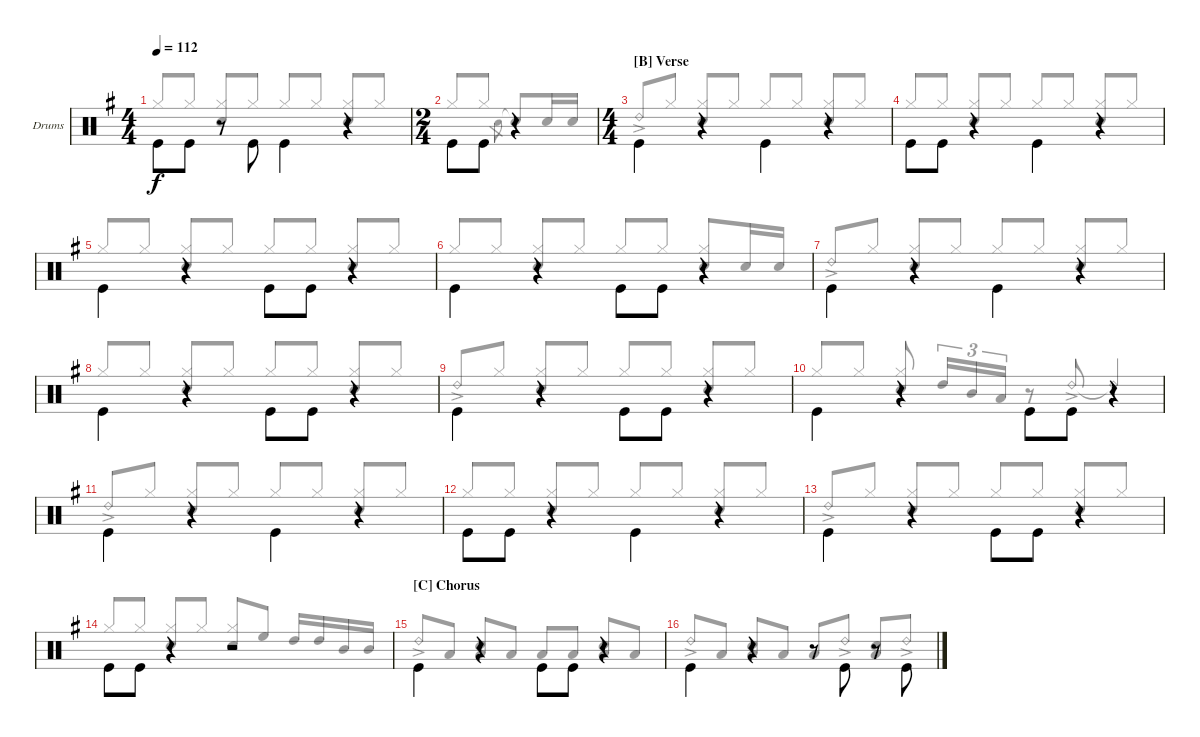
\defaultSystemsLayout 4
\bracketExtendMode groupsimilarinstruments
\firstSystemTrackNameOrientation horizontal
\otherSystemsTrackNameOrientation horizontal
\track ("Drumkit" "Drums") {instrument percussion}
\staff {score}
\articulation defaults
\voice
\ts (4 4)
\tempo 112
\clef neutral
\scale
1.04288
\ks g "Kick (hit)".8{dy f beam invert} "Kick (hit)".8
r.8 "Kick (hit)".8{beam invert} "Kick (hit)".4{beam invert} r.4 |
\ts (2 4)
\scale
0.957125 "Kick (hit)".8{beam invert} "Kick (hit)".8 r.4 |
\ts (4 4)
\section ("B" "Verse")
\scale
1.07314 "Kick (hit)".4{beam invert} r.4{beam invert} "Kick (hit)".4{beam invert} r.4{beam invert} |
\scale
0.92686 "Kick (hit)".8{beam invert} "Kick (hit)".8 r.4{beam invert} "Kick (hit)".4{beam invert} r.4{beam invert} |
\scale
1.04288 "Kick (hit)".4{beam invert} r.4{beam invert} "Kick (hit)".8{beam invert} "Kick (hit)".8 r.4{beam invert} |
\scale
0.957125 "Kick (hit)".4{beam invert} r.4{beam invert} "Kick (hit)".8{beam invert} "Kick (hit)".8 r.4{beam invert} |
\scale
1.04288 "Kick (hit)".4{beam invert} r.4{beam invert} "Kick (hit)".4{beam invert} r.4{beam invert} |
\scale
0.957125 "Kick (hit)".4{beam invert} r.4{beam invert} "Kick (hit)".8{beam invert} "Kick (hit)".8 r.4{beam invert} |
\scale
1.04288 "Kick (hit)".4{beam invert} r.4{beam invert} "Kick (hit)".8{beam invert} "Kick (hit)".8 r.4{beam invert} |
\scale
0.957125 "Kick (hit)".4{beam invert} r.4{beam invert} "Kick (hit)".8{beam invert} "Kick (hit)".8 r.4{beam invert} |
\scale
1.04288 "Kick (hit)".4{beam invert} r.4{beam invert} "Kick (hit)".4{beam invert} r.4{beam invert} |
\scale
0.957125 "Kick (hit)".8{beam invert} "Kick (hit)".8 r.4{beam invert} "Kick (hit)".4{beam invert} r.4{beam invert} |
\scale
1.04288 "Kick (hit)".4{beam invert} r.4{beam invert} "Kick (hit)".8{beam invert} "Kick (hit)".8 r.4{beam invert} |
\scale
0.957125 "Kick (hit)".8{beam invert} "Kick (hit)".8 r.4{beam invert} r.2 |
\section ("C" "Chorus")
\scale
1.04288 "Kick (hit)".4{beam invert} r.4{beam invert} "Kick (hit)".8{beam invert} "Kick (hit)".8 r.4{beam invert} |
\scale
0.957125 "Kick (hit)".4{beam invert} r.4{beam invert} r.8 "Kick (hit)".8{beam invert} r.8 "Kick (hit)".8{beam invert}
\voice
\clef neutral
\ottava regular
\simile none
\scale
1.04288
\ks g "Hi-Hat (closed)".8{dy f beam invert} "Hi-Hat (closed)".8
("Hi-Hat (closed)" "Snare (hit) 2").8{beam invert} "Hi-Hat (closed)".8 "Hi-Hat (closed)".8{beam invert} "Hi-Hat (closed)".8 ("Hi-Hat (closed)" "Snare (hit) 2").8{beam invert} "Hi-Hat (closed)".8 |
\scale
0.957125 "Hi-Hat (closed)".8{beam invert} "Hi-Hat (closed)".8 "Snare (hit) 2".8{gr} "Snare (hit) 2"{t}.8{beam invert} "Snare (hit) 2".16 "Snare (hit) 2".16 |
\scale
1.07314 "Ride (bell) 2"{ac}.8{beam invert} "Hi-Hat (closed)".8 ("Hi-Hat (closed)" "Snare (hit) 2").8{beam invert} "Hi-Hat (closed)".8 "Hi-Hat (closed)".8{beam invert} "Hi-Hat (closed)".8 ("Hi-Hat (closed)" "Snare (hit) 2").8{beam invert} "Hi-Hat (closed)".8 |
\scale
0.92686 "Hi-Hat (closed)".8{beam invert} "Hi-Hat (closed)".8 ("Hi-Hat (closed)" "Snare (hit) 2").8{beam invert} "Hi-Hat (closed)".8 "Hi-Hat (closed)".8{beam invert} "Hi-Hat (closed)".8 ("Hi-Hat (closed)" "Snare (hit) 2").8{beam invert} "Hi-Hat (closed)".8 |
\scale
1.04288 "Hi-Hat (closed)".8{beam invert} "Hi-Hat (closed)".8 ("Hi-Hat (closed)" "Snare (hit) 2").8{beam invert} "Hi-Hat (closed)".8 "Hi-Hat (closed)".8{beam invert} "Hi-Hat (closed)".8 ("Hi-Hat (closed)" "Snare (hit) 2").8{beam invert} "Hi-Hat (closed)".8 |
\scale
0.957125 "Hi-Hat (closed)".8{beam invert} "Hi-Hat (closed)".8 ("Hi-Hat (closed)" "Snare (hit) 2").8{beam invert} "Hi-Hat (closed)".8 "Hi-Hat (closed)".8{beam invert} "Hi-Hat (closed)".8 ("Hi-Hat (closed)" "Snare (hit) 2").8{beam invert} "Snare (hit) 2".16 "Snare (hit) 2".16 |
\scale
1.04288 "Ride (bell) 2"{ac}.8{beam invert} "Hi-Hat (closed)".8 ("Hi-Hat (closed)" "Snare (hit) 2").8{beam invert} "Hi-Hat (closed)".8 "Hi-Hat (closed)".8{beam invert} "Hi-Hat (closed)".8 ("Hi-Hat (closed)" "Snare (hit) 2").8{beam invert} "Hi-Hat (closed)".8 |
\scale
0.957125 "Hi-Hat (closed)".8{beam invert} "Hi-Hat (closed)".8 ("Hi-Hat (closed)" "Snare (hit) 2").8{beam invert} "Hi-Hat (closed)".8 "Hi-Hat (closed)".8{beam invert} "Hi-Hat (closed)".8 ("Hi-Hat (closed)" "Snare (hit) 2").8{beam invert} "Hi-Hat (closed)".8 |
\scale
1.04288 "Ride (bell) 2"{ac}.8{beam invert} "Hi-Hat (closed)".8 ("Hi-Hat (closed)" "Snare (hit) 2").8{beam invert} "Hi-Hat (closed)".8 "Hi-Hat (closed)".8{beam invert} "Hi-Hat (closed)".8 ("Hi-Hat (closed)" "Snare (hit) 2").8{beam invert} "Hi-Hat (closed)".8 |
\scale
0.957125 "Hi-Hat (closed)".8{beam invert} "Hi-Hat (closed)".8 ("Hi-Hat (closed)" "Snare (hit) 2").8{beam invert} "High Tom (hit)".16{tu (3 2) beam invert} "Mid Tom (hit)".16{tu (3 2)} "Low Tom (hit)".16{tu (3 2)} r.8 "Ride (bell) 2"{ac}.8{beam invert} "Ride (bell) 2"{t}.4{beam invert} |
\scale
1.04288 "Ride (bell) 2"{ac}.8{beam invert} "Hi-Hat (closed)".8 ("Hi-Hat (closed)" "Snare (hit) 2").8{beam invert} "Hi-Hat (closed)".8 "Hi-Hat (closed)".8{beam invert} "Hi-Hat (closed)".8 ("Hi-Hat (closed)" "Snare (hit) 2").8{beam invert} "Hi-Hat (closed)".8 |
\scale
0.957125 "Hi-Hat (closed)".8{beam invert} "Hi-Hat (closed)".8 ("Hi-Hat (closed)" "Snare (hit) 2").8{beam invert} "Hi-Hat (closed)".8 "Hi-Hat (closed)".8{beam invert} "Hi-Hat (closed)".8 ("Hi-Hat (closed)" "Snare (hit) 2").8{beam invert} "Hi-Hat (closed)".8 |
\scale
1.04288 "Ride (bell) 2"{ac}.8{beam invert} "Hi-Hat (closed)".8 ("Hi-Hat (closed)" "Snare (hit) 2").8{beam invert} "Hi-Hat (closed)".8 "Hi-Hat (closed)".8{beam invert} "Hi-Hat (closed)".8 ("Hi-Hat (closed)" "Snare (hit) 2").8{beam invert} "Hi-Hat (closed)".8 |
\scale
0.957125 "Hi-Hat (closed)".8{beam invert} "Hi-Hat (closed)".8 ("Hi-Hat (closed)" "Snare (hit) 2").8{beam invert} "Hi-Hat (closed)".8 ("Hi-Hat (closed)" "Snare (hit) 2").8{beam invert} "High Floor Tom (hit)".8 "High Tom (hit)".16{beam invert} "High Tom (hit)".16 "Mid Tom (hit)".16 "Mid Tom (hit)".16 |
\scale
1.04288 "Ride (bell) 2"{ac}.8{beam invert} "Low Tom (hit)".8 ("Low Tom (hit)" "Snare (hit) 2").8{beam invert} "Low Tom (hit)".8 "Low Tom (hit)".8{beam invert} "Low Tom (hit)".8 ("Low Tom (hit)" "Snare (hit) 2").8{beam invert} "Low Tom (hit)".8 |
\scale
0.957125 "Ride (bell) 2"{ac}.8{beam invert} "Low Tom (hit)".8 ("Low Tom (hit)" "Snare (hit) 2").8{beam invert} "Low Tom (hit)".8 "Low Tom (hit)".8{beam invert} "Ride (bell) 2"{ac}.8 ("Low Tom (hit)" "Snare (hit) 2").8{beam invert} "Ride (bell) 2"{ac}.8
